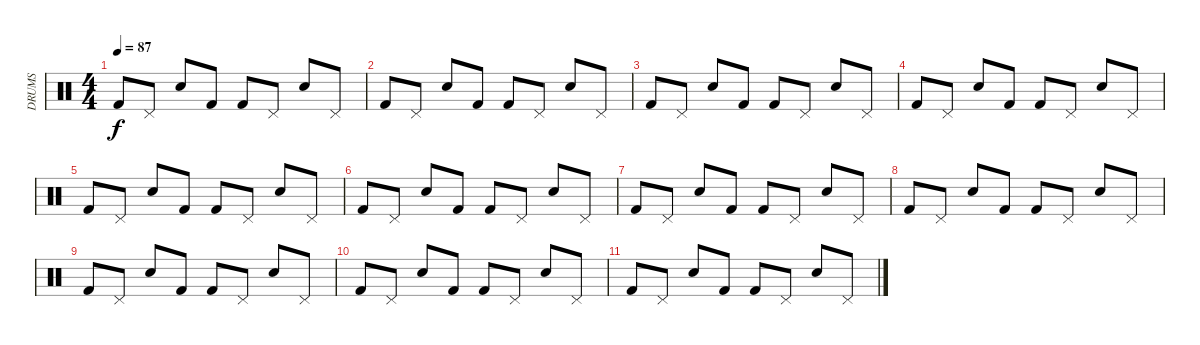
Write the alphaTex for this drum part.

\track ("DRUMS" "DRUMS") {instrument percussion}
\staff {score}
\articulation defaults
\ts (4 4)
\tempo 87
\clef neutral
\ks c "Kick (hit) 2".8{dy f} "Pedal Hi-Hat (hit)".8 "Electric Snare (hit)".8 "Kick (hit) 2".8 "Kick (hit) 2".8 "Pedal Hi-Hat (hit)".8 "Electric Snare (hit)".8 "Pedal Hi-Hat (hit)".8
|
"Kick (hit) 2".8 "Pedal Hi-Hat (hit)".8 "Electric Snare (hit)".8 "Kick (hit) 2".8 "Kick (hit) 2".8 "Pedal Hi-Hat (hit)".8 "Electric Snare (hit)".8 "Pedal Hi-Hat (hit)".8 |
"Kick (hit) 2".8 "Pedal Hi-Hat (hit)".8 "Electric Snare (hit)".8 "Kick (hit) 2".8 "Kick (hit) 2".8 "Pedal Hi-Hat (hit)".8 "Electric Snare (hit)".8 "Pedal Hi-Hat (hit)".8 |
"Kick (hit) 2".8 "Pedal Hi-Hat (hit)".8 "Electric Snare (hit)".8 "Kick (hit) 2".8 "Kick (hit) 2".8 "Pedal Hi-Hat (hit)".8 "Electric Snare (hit)".8 "Pedal Hi-Hat (hit)".8 |
"Kick (hit) 2".8 "Pedal Hi-Hat (hit)".8 "Electric Snare (hit)".8 "Kick (hit) 2".8 "Kick (hit) 2".8 "Pedal Hi-Hat (hit)".8 "Electric Snare (hit)".8 "Pedal Hi-Hat (hit)".8 |
"Kick (hit) 2".8 "Pedal Hi-Hat (hit)".8 "Electric Snare (hit)".8 "Kick (hit) 2".8 "Kick (hit) 2".8 "Pedal Hi-Hat (hit)".8 "Electric Snare (hit)".8 "Pedal Hi-Hat (hit)".8 |
"Kick (hit) 2".8 "Pedal Hi-Hat (hit)".8 "Electric Snare (hit)".8 "Kick (hit) 2".8 "Kick (hit) 2".8 "Pedal Hi-Hat (hit)".8 "Electric Snare (hit)".8 "Pedal Hi-Hat (hit)".8 |
"Kick (hit) 2".8 "Pedal Hi-Hat (hit)".8 "Electric Snare (hit)".8 "Kick (hit) 2".8 "Kick (hit) 2".8 "Pedal Hi-Hat (hit)".8 "Electric Snare (hit)".8 "Pedal Hi-Hat (hit)".8 |
"Kick (hit) 2".8 "Pedal Hi-Hat (hit)".8 "Electric Snare (hit)".8 "Kick (hit) 2".8 "Kick (hit) 2".8 "Pedal Hi-Hat (hit)".8 "Electric Snare (hit)".8 "Pedal Hi-Hat (hit)".8 |
"Kick (hit) 2".8 "Pedal Hi-Hat (hit)".8 "Electric Snare (hit)".8 "Kick (hit) 2".8 "Kick (hit) 2".8 "Pedal Hi-Hat (hit)".8 "Electric Snare (hit)".8 "Pedal Hi-Hat (hit)".8 |
"Kick (hit) 2".8 "Pedal Hi-Hat (hit)".8 "Electric Snare (hit)".8 "Kick (hit) 2".8 "Kick (hit) 2".8 "Pedal Hi-Hat (hit)".8 "Electric Snare (hit)".8 "Pedal Hi-Hat (hit)".8
